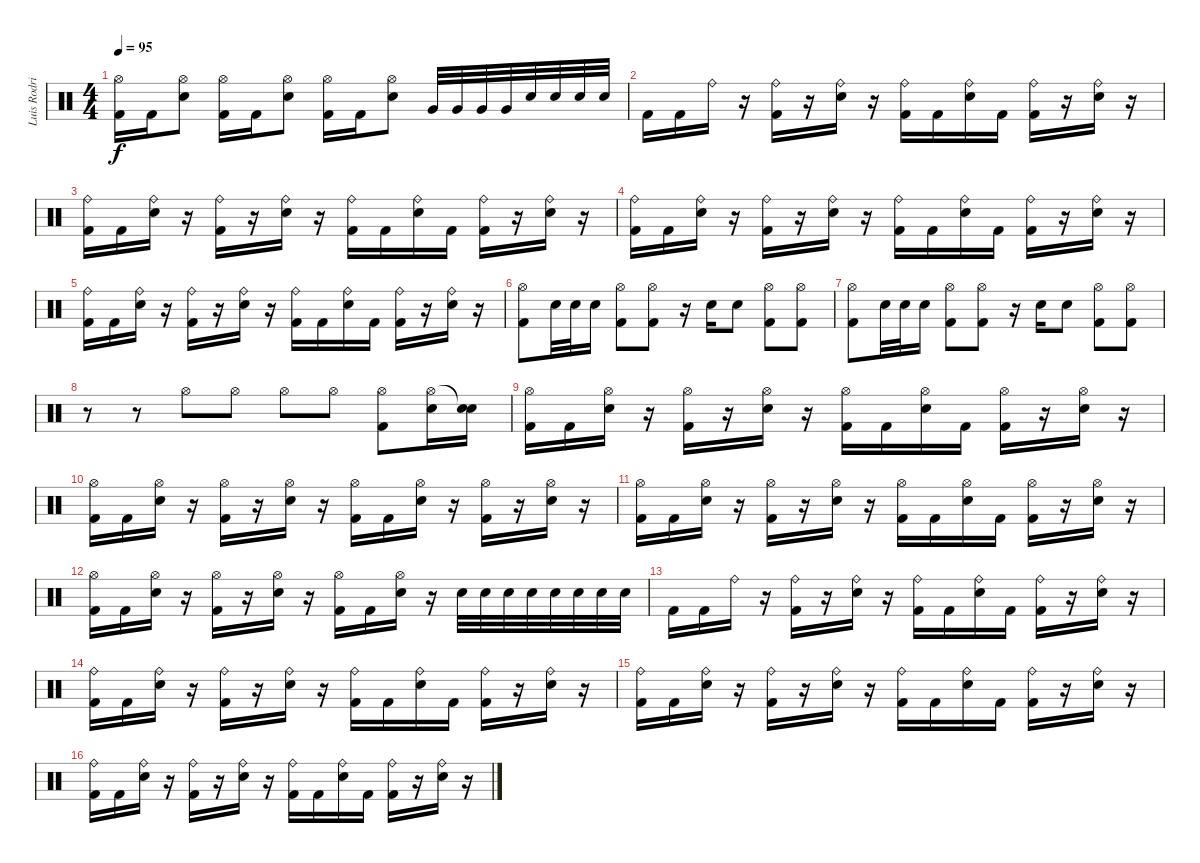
\track ("Luis Rodriguez" "Luis Rodri") {instrument percussion}
\staff {score}
\articulation defaults
\ts (4 4)
\tempo 95
\clef neutral
\ks c
("Hi-Hat (open)" "Kick (hit) 2").16{dy f} "Kick (hit) 2".16 ("Hi-Hat (open)" "Snare (hit) 2").8 ("Hi-Hat (open)" "Kick (hit) 2").16 "Kick (hit) 2".16 ("Hi-Hat (open)" "Snare (hit) 2").8 ("Hi-Hat (open)" "Kick (hit) 2").16 "Kick (hit) 2".16 ("Hi-Hat (open)" "Snare (hit) 2").8 "Very Low Tom (hit)".32 "Very Low Tom (hit)".32 "Very Low Tom (hit)".32 "Very Low Tom (hit)".32 "Electric Snare (hit)".32 "Electric Snare (hit)".32 "Electric Snare (hit)".32 "Electric Snare (hit)".32 |
"Kick (hit) 2".16 "Kick (hit) 2".16 "Ride (bell)".16 r.16 ("Ride (bell)" "Kick (hit) 2").16 r.16 ("Ride (bell)" "Snare (hit) 2").16 r.16 ("Ride (bell)" "Kick (hit) 2").16 "Kick (hit) 2".16 ("Ride (bell)" "Snare (hit) 2").16 "Kick (hit) 2".16 ("Ride (bell)" "Kick (hit) 2").16 r.16 ("Ride (bell)" "Snare (hit) 2").16 r.16 |
("Ride (bell)" "Kick (hit) 2").16 "Kick (hit) 2".16 ("Ride (bell)" "Snare (hit) 2").16 r.16 ("Ride (bell)" "Kick (hit) 2").16 r.16 ("Ride (bell)" "Snare (hit) 2").16 r.16 ("Ride (bell)" "Kick (hit) 2").16 "Kick (hit) 2".16 ("Ride (bell)" "Snare (hit) 2").16 "Kick (hit) 2".16 ("Ride (bell)" "Kick (hit) 2").16 r.16 ("Ride (bell)" "Snare (hit) 2").16 r.16 |
("Ride (bell)" "Kick (hit) 2").16 "Kick (hit) 2".16 ("Ride (bell)" "Snare (hit) 2").16 r.16 ("Ride (bell)" "Kick (hit) 2").16 r.16 ("Ride (bell)" "Snare (hit) 2").16 r.16 ("Ride (bell)" "Kick (hit) 2").16 "Kick (hit) 2".16 ("Ride (bell)" "Snare (hit) 2").16 "Kick (hit) 2".16 ("Ride (bell)" "Kick (hit) 2").16 r.16 ("Ride (bell)" "Snare (hit) 2").16 r.16 |
("Ride (bell)" "Kick (hit) 2").16 "Kick (hit) 2".16 ("Ride (bell)" "Snare (hit) 2").16 r.16 ("Ride (bell)" "Kick (hit) 2").16 r.16 ("Ride (bell)" "Snare (hit) 2").16 r.16 ("Ride (bell)" "Kick (hit) 2").16 "Kick (hit) 2".16 ("Ride (bell)" "Snare (hit) 2").16 "Kick (hit) 2".16 ("Ride (bell)" "Kick (hit) 2").16 r.16 ("Ride (bell)" "Snare (hit) 2").16 r.16 |
("Hi-Hat (open)" "Kick (hit) 2").8 "Snare (hit) 2".32 "Snare (hit) 2".32 "Snare (hit) 2".16 ("Hi-Hat (open)" "Kick (hit) 2").8 ("Hi-Hat (open)" "Kick (hit) 2").8 r.16 "Snare (hit) 2".16 "Snare (hit) 2".8 ("Hi-Hat (open)" "Kick (hit) 2").8 ("Hi-Hat (open)" "Kick (hit) 2").8 |
("Hi-Hat (open)" "Kick (hit) 2").8 "Snare (hit) 2".32 "Snare (hit) 2".32 "Snare (hit) 2".16 ("Hi-Hat (open)" "Kick (hit) 2").8 ("Hi-Hat (open)" "Kick (hit) 2").8 r.16 "Snare (hit) 2".16 "Snare (hit) 2".8 ("Hi-Hat (open)" "Kick (hit) 2").8 ("Hi-Hat (open)" "Kick (hit) 2").8 |
r.8 r.8 "Hi-Hat (open)".8 "Hi-Hat (open)".8 "Hi-Hat (open)".8 "Hi-Hat (open)".8 ("Hi-Hat (open)" "Kick (hit) 2").8 ("Hi-Hat (open)" "Snare (hit) 2").16 ("Snare (hit)"{t} "Snare (hit) 2").16 |
("Hi-Hat (open)" "Kick (hit) 2").16 "Kick (hit) 2".16 ("Hi-Hat (open)" "Electric Snare (hit)").16 r.16 ("Hi-Hat (open)" "Kick (hit) 2").16 r.16 ("Hi-Hat (open)" "Electric Snare (hit)").16 r.16 ("Hi-Hat (open)" "Kick (hit) 2").16 "Kick (hit) 2".16 ("Hi-Hat (open)" "Electric Snare (hit)").16 "Kick (hit) 2".16 ("Hi-Hat (open)" "Kick (hit) 2").16 r.16 ("Hi-Hat (open)" "Electric Snare (hit)").16 r.16 |
("Hi-Hat (open)" "Kick (hit) 2").16 "Kick (hit) 2".16 ("Hi-Hat (open)" "Electric Snare (hit)").16 r.16 ("Hi-Hat (open)" "Kick (hit) 2").16 r.16 ("Hi-Hat (open)" "Electric Snare (hit)").16 r.16 ("Hi-Hat (open)" "Kick (hit) 2").16 "Kick (hit) 2".16 ("Hi-Hat (open)" "Electric Snare (hit)").16 r.16 ("Hi-Hat (open)" "Kick (hit) 2").16 r.16 ("Hi-Hat (open)" "Electric Snare (hit)").16 r.16 |
("Hi-Hat (open)" "Kick (hit) 2").16 "Kick (hit) 2".16 ("Hi-Hat (open)" "Electric Snare (hit)").16 r.16 ("Hi-Hat (open)" "Kick (hit) 2").16 r.16 ("Hi-Hat (open)" "Electric Snare (hit)").16 r.16 ("Hi-Hat (open)" "Kick (hit) 2").16 "Kick (hit) 2".16 ("Hi-Hat (open)" "Electric Snare (hit)").16 "Kick (hit) 2".16 ("Hi-Hat (open)" "Kick (hit) 2").16 r.16 ("Hi-Hat (open)" "Electric Snare (hit)").16 r.16 |
("Hi-Hat (open)" "Kick (hit) 2").16 "Kick (hit) 2".16 ("Hi-Hat (open)" "Electric Snare (hit)").16 r.16 ("Hi-Hat (open)" "Kick (hit) 2").16 r.16 ("Hi-Hat (open)" "Electric Snare (hit)").16 r.16 ("Hi-Hat (open)" "Kick (hit) 2").16 "Kick (hit) 2".16 ("Hi-Hat (open)" "Electric Snare (hit)").16 r.16 "Electric Snare (hit)".32 "Electric Snare (hit)".32 "Electric Snare (hit)".32 "Electric Snare (hit)".32 "Electric Snare (hit)".32 "Electric Snare (hit)".32 "Electric Snare (hit)".32 "Electric Snare (hit)".32 |
"Kick (hit) 2".16 "Kick (hit) 2".16 "Ride (bell)".16 r.16 ("Ride (bell)" "Kick (hit) 2").16 r.16 ("Ride (bell)" "Snare (hit) 2").16 r.16 ("Ride (bell)" "Kick (hit) 2").16 "Kick (hit) 2".16 ("Ride (bell)" "Snare (hit) 2").16 "Kick (hit) 2".16 ("Ride (bell)" "Kick (hit) 2").16 r.16 ("Ride (bell)" "Snare (hit) 2").16 r.16 |
("Ride (bell)" "Kick (hit) 2").16 "Kick (hit) 2".16 ("Ride (bell)" "Snare (hit) 2").16 r.16 ("Ride (bell)" "Kick (hit) 2").16 r.16 ("Ride (bell)" "Snare (hit) 2").16 r.16 ("Ride (bell)" "Kick (hit) 2").16 "Kick (hit) 2".16 ("Ride (bell)" "Snare (hit) 2").16 "Kick (hit) 2".16 ("Ride (bell)" "Kick (hit) 2").16 r.16 ("Ride (bell)" "Snare (hit) 2").16 r.16 |
("Ride (bell)" "Kick (hit) 2").16 "Kick (hit) 2".16 ("Ride (bell)" "Snare (hit) 2").16 r.16 ("Ride (bell)" "Kick (hit) 2").16 r.16 ("Ride (bell)" "Snare (hit) 2").16 r.16 ("Ride (bell)" "Kick (hit) 2").16 "Kick (hit) 2".16 ("Ride (bell)" "Snare (hit) 2").16 "Kick (hit) 2".16 ("Ride (bell)" "Kick (hit) 2").16 r.16 ("Ride (bell)" "Snare (hit) 2").16 r.16 |
("Ride (bell)" "Kick (hit) 2").16 "Kick (hit) 2".16 ("Ride (bell)" "Snare (hit) 2").16 r.16 ("Ride (bell)" "Kick (hit) 2").16 r.16 ("Ride (bell)" "Snare (hit) 2").16 r.16 ("Ride (bell)" "Kick (hit) 2").16 "Kick (hit) 2".16 ("Ride (bell)" "Snare (hit) 2").16 "Kick (hit) 2".16 ("Ride (bell)" "Kick (hit) 2").16 r.16 ("Ride (bell)" "Snare (hit) 2").16 r.16
